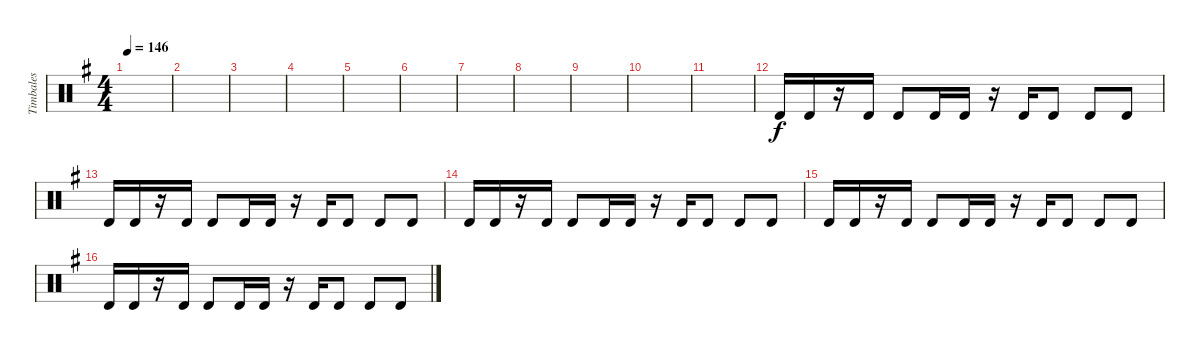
\track ("Timbales" "Timbales") {instrument percussion}
\staff {score}
\articulation defaults
\ts (4 4)
\tempo 146
\clef neutral
\ks g
|
|
|
|
|
|
|
|
|
|
|
"Timbale high (hit)".16 "Timbale high (hit)".16 r.16 "Timbale high (hit)".16 "Timbale high (hit)".8 "Timbale high (hit)".16 "Timbale high (hit)".16 r.16 "Timbale high (hit)".16 "Timbale high (hit)".8 "Timbale high (hit)".8 "Timbale high (hit)".8 |
"Timbale high (hit)".16 "Timbale high (hit)".16 r.16 "Timbale high (hit)".16 "Timbale high (hit)".8 "Timbale high (hit)".16 "Timbale high (hit)".16 r.16 "Timbale high (hit)".16 "Timbale high (hit)".8 "Timbale high (hit)".8 "Timbale high (hit)".8 |
"Timbale high (hit)".16 "Timbale high (hit)".16 r.16 "Timbale high (hit)".16 "Timbale high (hit)".8 "Timbale high (hit)".16 "Timbale high (hit)".16 r.16 "Timbale high (hit)".16 "Timbale high (hit)".8 "Timbale high (hit)".8 "Timbale high (hit)".8 |
"Timbale high (hit)".16 "Timbale high (hit)".16 r.16 "Timbale high (hit)".16 "Timbale high (hit)".8 "Timbale high (hit)".16 "Timbale high (hit)".16 r.16 "Timbale high (hit)".16 "Timbale high (hit)".8 "Timbale high (hit)".8 "Timbale high (hit)".8 |
"Timbale high (hit)".16 "Timbale high (hit)".16 r.16 "Timbale high (hit)".16 "Timbale high (hit)".8 "Timbale high (hit)".16 "Timbale high (hit)".16 r.16 "Timbale high (hit)".16 "Timbale high (hit)".8 "Timbale high (hit)".8 "Timbale high (hit)".8
